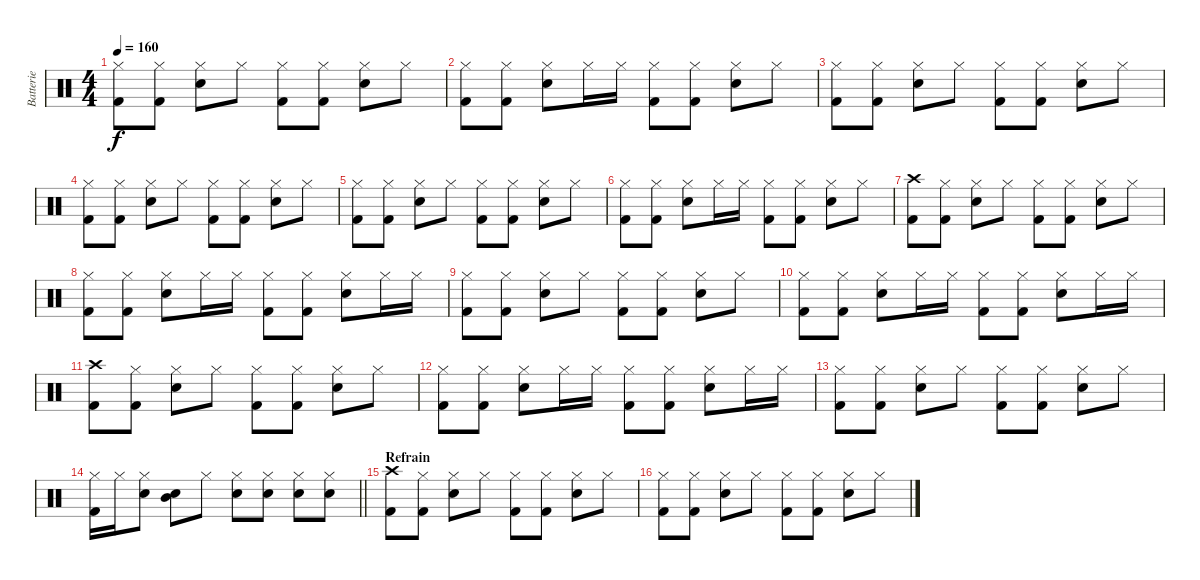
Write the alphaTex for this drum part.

\track ("Batterie" "Batterie") {instrument percussion}
\staff {score}
\articulation defaults
\ts (4 4)
\tempo 160
\clef neutral
\ks c
("Hi-Hat (closed)" "Kick (hit) 2").8{dy f} ("Hi-Hat (closed)" "Kick (hit) 2").8 ("Hi-Hat (closed)" "Electric Snare (hit)").8 "Hi-Hat (closed)".8 ("Hi-Hat (closed)" "Kick (hit) 2").8 ("Hi-Hat (closed)" "Kick (hit) 2").8 ("Hi-Hat (closed)" "Electric Snare (hit)").8 "Hi-Hat (closed)".8 |
("Hi-Hat (closed)" "Kick (hit) 2").8 ("Hi-Hat (closed)" "Kick (hit) 2").8 ("Hi-Hat (closed)" "Electric Snare (hit)").8 "Hi-Hat (closed)".16 "Hi-Hat (closed)".16 ("Hi-Hat (closed)" "Kick (hit) 2").8 ("Hi-Hat (closed)" "Kick (hit) 2").8 ("Hi-Hat (closed)" "Electric Snare (hit)").8 "Hi-Hat (closed)".8 |
("Hi-Hat (closed)" "Kick (hit) 2").8 ("Hi-Hat (closed)" "Kick (hit) 2").8 ("Hi-Hat (closed)" "Electric Snare (hit)").8 "Hi-Hat (closed)".8 ("Hi-Hat (closed)" "Kick (hit) 2").8 ("Hi-Hat (closed)" "Kick (hit) 2").8 ("Hi-Hat (closed)" "Electric Snare (hit)").8 "Hi-Hat (closed)".8 |
("Hi-Hat (closed)" "Kick (hit) 2").8 ("Hi-Hat (closed)" "Kick (hit) 2").8 ("Hi-Hat (closed)" "Electric Snare (hit)").8 "Hi-Hat (closed)".8 ("Hi-Hat (closed)" "Kick (hit) 2").8 ("Hi-Hat (closed)" "Kick (hit) 2").8 ("Hi-Hat (closed)" "Electric Snare (hit)").8 "Hi-Hat (closed)".8 |
("Hi-Hat (closed)" "Kick (hit) 2").8 ("Hi-Hat (closed)" "Kick (hit) 2").8 ("Hi-Hat (closed)" "Electric Snare (hit)").8 "Hi-Hat (closed)".8 ("Hi-Hat (closed)" "Kick (hit) 2").8 ("Hi-Hat (closed)" "Kick (hit) 2").8 ("Hi-Hat (closed)" "Electric Snare (hit)").8 "Hi-Hat (closed)".8 |
("Hi-Hat (closed)" "Kick (hit) 2").8 ("Hi-Hat (closed)" "Kick (hit) 2").8 ("Hi-Hat (closed)" "Electric Snare (hit)").8 "Hi-Hat (closed)".16 "Hi-Hat (closed)".16 ("Hi-Hat (closed)" "Kick (hit) 2").8 ("Hi-Hat (closed)" "Kick (hit) 2").8 ("Hi-Hat (closed)" "Electric Snare (hit)").8 "Hi-Hat (closed)".8 |
("Crash high (hit)" "Kick (hit) 2").8 ("Hi-Hat (closed)" "Kick (hit) 2").8 ("Hi-Hat (closed)" "Electric Snare (hit)").8 "Hi-Hat (closed)".8 ("Hi-Hat (closed)" "Kick (hit) 2").8 ("Hi-Hat (closed)" "Kick (hit) 2").8 ("Hi-Hat (closed)" "Electric Snare (hit)").8 "Hi-Hat (closed)".8 |
("Hi-Hat (closed)" "Kick (hit) 2").8 ("Hi-Hat (closed)" "Kick (hit) 2").8 ("Hi-Hat (closed)" "Electric Snare (hit)").8 "Hi-Hat (closed)".16 "Hi-Hat (closed)".16 ("Hi-Hat (closed)" "Kick (hit) 2").8 ("Hi-Hat (closed)" "Kick (hit) 2").8 ("Hi-Hat (closed)" "Electric Snare (hit)").8 "Hi-Hat (closed)".16 "Hi-Hat (closed)".16 |
("Hi-Hat (closed)" "Kick (hit) 2").8 ("Hi-Hat (closed)" "Kick (hit) 2").8 ("Hi-Hat (closed)" "Electric Snare (hit)").8 "Hi-Hat (closed)".8 ("Hi-Hat (closed)" "Kick (hit) 2").8 ("Hi-Hat (closed)" "Kick (hit) 2").8 ("Hi-Hat (closed)" "Electric Snare (hit)").8 "Hi-Hat (closed)".8 |
("Hi-Hat (closed)" "Kick (hit) 2").8 ("Hi-Hat (closed)" "Kick (hit) 2").8 ("Hi-Hat (closed)" "Electric Snare (hit)").8 "Hi-Hat (closed)".16 "Hi-Hat (closed)".16 ("Hi-Hat (closed)" "Kick (hit) 2").8 ("Hi-Hat (closed)" "Kick (hit) 2").8 ("Hi-Hat (closed)" "Electric Snare (hit)").8 "Hi-Hat (closed)".16 "Hi-Hat (closed)".16 |
("Crash high (hit)" "Kick (hit) 2").8 ("Hi-Hat (closed)" "Kick (hit) 2").8 ("Hi-Hat (closed)" "Electric Snare (hit)").8 "Hi-Hat (closed)".8 ("Hi-Hat (closed)" "Kick (hit) 2").8 ("Hi-Hat (closed)" "Kick (hit) 2").8 ("Hi-Hat (closed)" "Electric Snare (hit)").8 "Hi-Hat (closed)".8 |
("Hi-Hat (closed)" "Kick (hit) 2").8 ("Hi-Hat (closed)" "Kick (hit) 2").8 ("Hi-Hat (closed)" "Electric Snare (hit)").8 "Hi-Hat (closed)".16 "Hi-Hat (closed)".16 ("Hi-Hat (closed)" "Kick (hit) 2").8 ("Hi-Hat (closed)" "Kick (hit) 2").8 ("Hi-Hat (closed)" "Electric Snare (hit)").8 "Hi-Hat (closed)".16 "Hi-Hat (closed)".16 |
("Hi-Hat (closed)" "Kick (hit) 2").8 ("Hi-Hat (closed)" "Kick (hit) 2").8 ("Hi-Hat (closed)" "Electric Snare (hit)").8 "Hi-Hat (closed)".8 ("Hi-Hat (closed)" "Kick (hit) 2").8 ("Hi-Hat (closed)" "Kick (hit) 2").8 ("Hi-Hat (closed)" "Electric Snare (hit)").8 "Hi-Hat (closed)".8 |
\barLineRight lightlight
("Hi-Hat (closed)" "Kick (hit) 2").16 "Hi-Hat (closed)".16 ("Hi-Hat (closed)" "Electric Snare (hit)").8 ("Mid Tom (hit)" "Electric Snare (hit)").8 "Hi-Hat (closed)".8 ("Hi-Hat (closed)" "Electric Snare (hit)").8 ("Hi-Hat (closed)" "Electric Snare (hit)").8 ("Hi-Hat (closed)" "Electric Snare (hit)").8 ("Hi-Hat (closed)" "Electric Snare (hit)").8 |
\section ("" "Refrain")
("Crash high (hit)" "Kick (hit) 2").8 ("Hi-Hat (closed)" "Kick (hit) 2").8 ("Hi-Hat (closed)" "Electric Snare (hit)").8 "Hi-Hat (closed)".8 ("Hi-Hat (closed)" "Kick (hit) 2").8 ("Hi-Hat (closed)" "Kick (hit) 2").8 ("Hi-Hat (closed)" "Electric Snare (hit)").8 "Hi-Hat (closed)".8 |
("Hi-Hat (closed)" "Kick (hit) 2").8 ("Hi-Hat (closed)" "Kick (hit) 2").8 ("Hi-Hat (closed)" "Electric Snare (hit)").8 "Hi-Hat (closed)".8 ("Hi-Hat (closed)" "Kick (hit) 2").8 ("Hi-Hat (closed)" "Kick (hit) 2").8 ("Hi-Hat (closed)" "Electric Snare (hit)").8 "Hi-Hat (closed)".8
